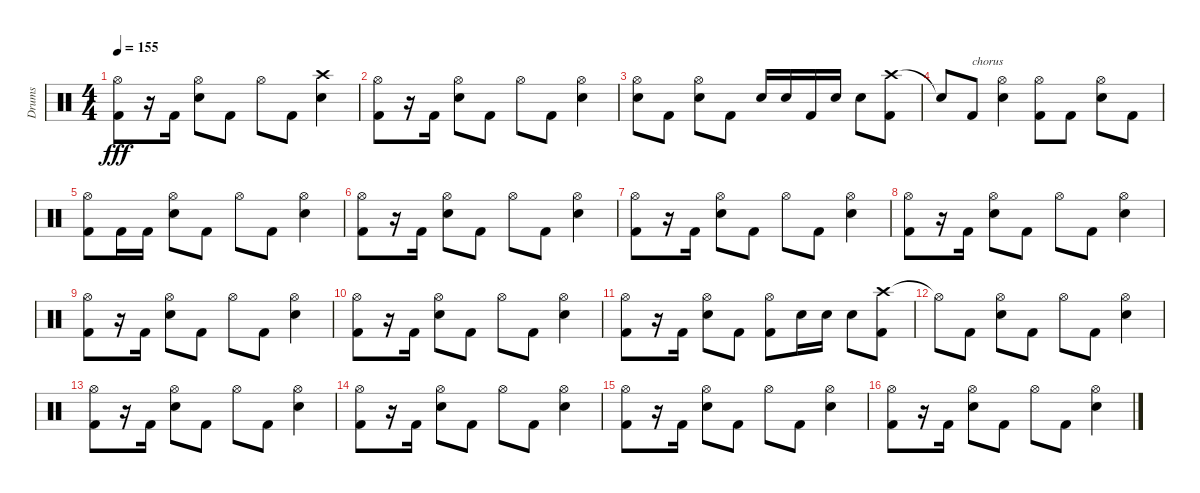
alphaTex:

\track ("Drums" "Drums") {instrument percussion}
\staff {score}
\articulation defaults
\ts (4 4)
\tempo 155
\clef neutral
\ks c
("Hi-Hat (open)" "Kick (hit) 2").8{dy fff} r.16 "Kick (hit) 2".16 ("Hi-Hat (open)" "Electric Snare (hit)").8 "Kick (hit) 2".8 "Hi-Hat (open)".8 "Kick (hit) 2".8 ("Crash high (hit)" "Electric Snare (hit)").4 |
("Hi-Hat (open)" "Kick (hit) 2").8 r.16 "Kick (hit) 2".16 ("Hi-Hat (open)" "Electric Snare (hit)").8 "Kick (hit) 2".8 "Hi-Hat (open)".8 "Kick (hit) 2".8 ("Hi-Hat (open)" "Electric Snare (hit)").4 |
("Hi-Hat (open)" "Electric Snare (hit)").8 "Kick (hit) 2".8 ("Hi-Hat (open)" "Electric Snare (hit)").8 "Kick (hit) 2".8 "Electric Snare (hit)".16 "Electric Snare (hit)".16 "Kick (hit) 2".16 "Electric Snare (hit)".16 "Electric Snare (hit)".8 ("Crash high (hit)" "Kick (hit) 2").8 |
"Snare (hit)"{t}.8 "Kick (hit) 2".8{txt "chorus"} ("Hi-Hat (open)" "Electric Snare (hit)").4 ("Hi-Hat (open)" "Kick (hit) 2").8 "Kick (hit) 2".8 ("Hi-Hat (open)" "Electric Snare (hit)").8 "Kick (hit) 2".8 |
("Hi-Hat (open)" "Kick (hit) 2").8 "Kick (hit) 2".16 "Kick (hit) 2".16 ("Hi-Hat (open)" "Electric Snare (hit)").8 "Kick (hit) 2".8 "Hi-Hat (open)".8 "Kick (hit) 2".8 ("Hi-Hat (open)" "Electric Snare (hit)").4 |
("Hi-Hat (open)" "Kick (hit) 2").8 r.16 "Kick (hit) 2".16 ("Hi-Hat (open)" "Electric Snare (hit)").8 "Kick (hit) 2".8 "Hi-Hat (open)".8 "Kick (hit) 2".8 ("Hi-Hat (open)" "Electric Snare (hit)").4 |
("Hi-Hat (open)" "Kick (hit) 2").8 r.16 "Kick (hit) 2".16 ("Hi-Hat (open)" "Electric Snare (hit)").8 "Kick (hit) 2".8 "Hi-Hat (open)".8 "Kick (hit) 2".8 ("Hi-Hat (open)" "Electric Snare (hit)").4 |
("Hi-Hat (open)" "Kick (hit) 2").8 r.16 "Kick (hit) 2".16 ("Hi-Hat (open)" "Electric Snare (hit)").8 "Kick (hit) 2".8 "Hi-Hat (open)".8 "Kick (hit) 2".8 ("Hi-Hat (open)" "Electric Snare (hit)").4 |
("Hi-Hat (open)" "Kick (hit) 2").8 r.16 "Kick (hit) 2".16 ("Hi-Hat (open)" "Electric Snare (hit)").8 "Kick (hit) 2".8 "Hi-Hat (open)".8 "Kick (hit) 2".8 ("Hi-Hat (open)" "Electric Snare (hit)").4 |
("Hi-Hat (open)" "Kick (hit) 2").8 r.16 "Kick (hit) 2".16 ("Hi-Hat (open)" "Electric Snare (hit)").8 "Kick (hit) 2".8 "Hi-Hat (open)".8 "Kick (hit) 2".8 ("Hi-Hat (open)" "Electric Snare (hit)").4 |
("Hi-Hat (open)" "Kick (hit) 2").8 r.16 "Kick (hit) 2".16 ("Hi-Hat (open)" "Electric Snare (hit)").8 "Kick (hit) 2".8 ("Hi-Hat (open)" "Kick (hit) 2").8 "Electric Snare (hit)".16 "Electric Snare (hit)".16 "Electric Snare (hit)".8 ("Crash high (hit)" "Kick (hit) 2").8 |
"Hi-Hat (open)"{t}.8 "Kick (hit) 2".8 ("Hi-Hat (open)" "Electric Snare (hit)").8 "Kick (hit) 2".8 "Hi-Hat (open)".8 "Kick (hit) 2".8 ("Hi-Hat (open)" "Electric Snare (hit)").4 |
("Hi-Hat (open)" "Kick (hit) 2").8 r.16 "Kick (hit) 2".16 ("Hi-Hat (open)" "Electric Snare (hit)").8 "Kick (hit) 2".8 "Hi-Hat (open)".8 "Kick (hit) 2".8 ("Hi-Hat (open)" "Electric Snare (hit)").4 |
("Hi-Hat (open)" "Kick (hit) 2").8 r.16 "Kick (hit) 2".16 ("Hi-Hat (open)" "Electric Snare (hit)").8 "Kick (hit) 2".8 "Hi-Hat (open)".8 "Kick (hit) 2".8 ("Hi-Hat (open)" "Electric Snare (hit)").4 |
("Hi-Hat (open)" "Kick (hit) 2").8 r.16 "Kick (hit) 2".16 ("Hi-Hat (open)" "Electric Snare (hit)").8 "Kick (hit) 2".8 "Hi-Hat (open)".8 "Kick (hit) 2".8 ("Hi-Hat (open)" "Electric Snare (hit)").4 |
("Hi-Hat (open)" "Kick (hit) 2").8 r.16 "Kick (hit) 2".16 ("Hi-Hat (open)" "Electric Snare (hit)").8 "Kick (hit) 2".8 "Hi-Hat (open)".8 "Kick (hit) 2".8 ("Hi-Hat (open)" "Electric Snare (hit)").4
